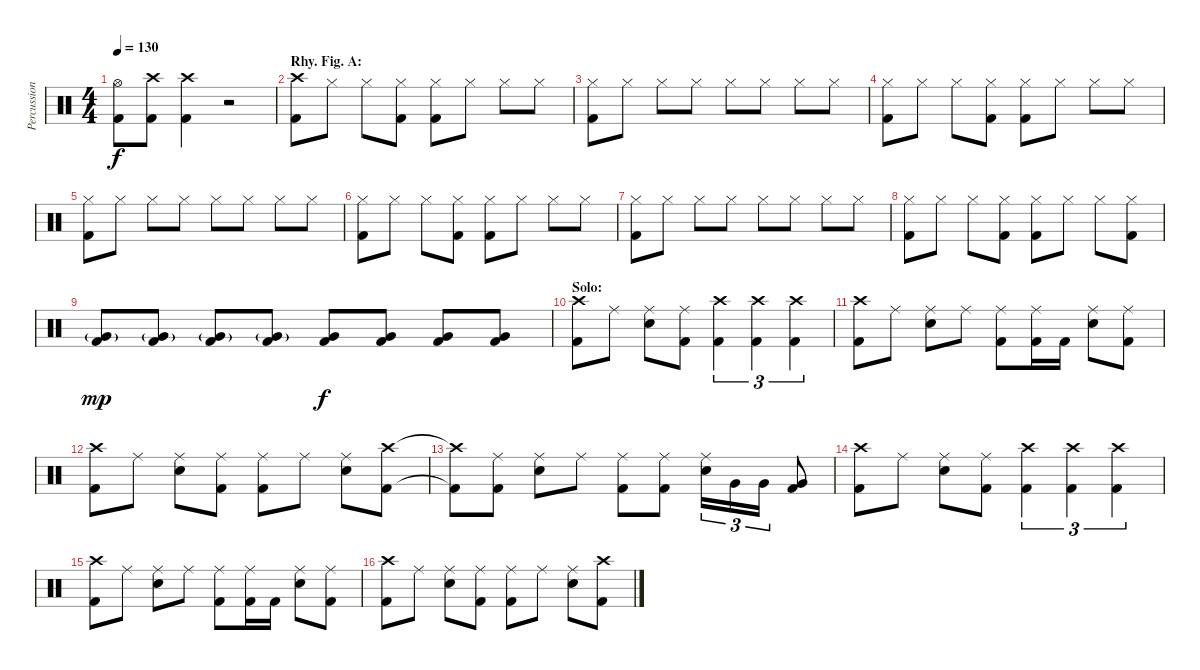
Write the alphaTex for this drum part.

\track ("Percussion" "Percussion") {instrument percussion}
\staff {score}
\articulation defaults
\ts (4 4)
\tempo 130
\clef neutral
\ks c
("Hi-Hat (open)"{t} "Kick (hit) 2"{t}).8{dy f} ("Crash high (hit)" "Kick (hit) 2").8 ("Crash high (hit)" "Kick (hit) 2").4 r.2 |
\section ("" "Rhy. Fig. A:")
("Crash high (hit)" "Kick (hit) 2").8 "Hi-Hat (closed)".8 "Hi-Hat (closed)".8 ("Hi-Hat (closed)" "Kick (hit) 2").8 ("Hi-Hat (closed)" "Kick (hit) 2").8 "Hi-Hat (closed)".8 "Hi-Hat (closed)".8 "Hi-Hat (closed)".8 |
("Hi-Hat (closed)" "Kick (hit) 2").8 "Hi-Hat (closed)".8 "Hi-Hat (closed)".8 "Hi-Hat (closed)".8 "Hi-Hat (closed)".8 "Hi-Hat (closed)".8 "Hi-Hat (closed)".8 "Hi-Hat (closed)".8 |
("Hi-Hat (closed)" "Kick (hit) 2").8 "Hi-Hat (closed)".8 "Hi-Hat (closed)".8 ("Hi-Hat (closed)" "Kick (hit) 2").8 ("Hi-Hat (closed)" "Kick (hit) 2").8 "Hi-Hat (closed)".8 "Hi-Hat (closed)".8 "Hi-Hat (closed)".8 |
("Hi-Hat (closed)" "Kick (hit) 2").8 "Hi-Hat (closed)".8 "Hi-Hat (closed)".8 "Hi-Hat (closed)".8 "Hi-Hat (closed)".8 "Hi-Hat (closed)".8 "Hi-Hat (closed)".8 "Hi-Hat (closed)".8 |
("Hi-Hat (closed)" "Kick (hit) 2").8 "Hi-Hat (closed)".8 "Hi-Hat (closed)".8 ("Hi-Hat (closed)" "Kick (hit) 2").8 ("Hi-Hat (closed)" "Kick (hit) 2").8 "Hi-Hat (closed)".8 "Hi-Hat (closed)".8 "Hi-Hat (closed)".8 |
("Hi-Hat (closed)" "Kick (hit) 2").8 "Hi-Hat (closed)".8 "Hi-Hat (closed)".8 "Hi-Hat (closed)".8 "Hi-Hat (closed)".8 "Hi-Hat (closed)".8 "Hi-Hat (closed)".8 "Hi-Hat (closed)".8 |
("Hi-Hat (closed)" "Kick (hit) 2").8 "Hi-Hat (closed)".8 "Hi-Hat (closed)".8 ("Hi-Hat (closed)" "Kick (hit) 2").8 ("Hi-Hat (closed)" "Kick (hit) 2").8 "Hi-Hat (closed)".8 "Hi-Hat (closed)".8 ("Hi-Hat (closed)" "Kick (hit) 2").8 |
("Very Low Tom (hit)"{g} "Kick (hit) 2").8{dy mp} ("Very Low Tom (hit)"{g} "Kick (hit) 2").8 ("Very Low Tom (hit)"{g} "Kick (hit) 2").8 ("Very Low Tom (hit)"{g} "Kick (hit) 2").8 ("Very Low Tom (hit)" "Kick (hit) 2").8{dy f} ("Very Low Tom (hit)" "Kick (hit) 2").8 ("Very Low Tom (hit)" "Kick (hit) 2").8 ("Very Low Tom (hit)" "Kick (hit) 2").8 |
\section ("" "Solo:")
("Crash high (hit)" "Kick (hit) 2").8 "Ride (middle)".8 ("Ride (middle)" "Electric Snare (hit)").8 ("Ride (middle)" "Kick (hit) 2").8 ("Crash high (hit)" "Kick (hit) 2").4{tu (3 2)} ("Crash high (hit)" "Kick (hit) 2").4{tu (3 2)} ("Crash high (hit)" "Kick (hit) 2").4{tu (3 2)} |
("Crash high (hit)" "Kick (hit) 2").8 "Ride (middle)".8 ("Ride (middle)" "Electric Snare (hit)").8 "Ride (middle)".8 ("Ride (middle)" "Kick (hit) 2").8 ("Ride (middle)" "Kick (hit) 2").16 "Kick (hit) 2".16 ("Ride (middle)" "Electric Snare (hit)").8 ("Ride (middle)" "Kick (hit) 2").8 |
("Crash high (hit)" "Kick (hit) 2").8 "Ride (middle)".8 ("Ride (middle)" "Electric Snare (hit)").8 ("Ride (middle)" "Kick (hit) 2").8 ("Ride (middle)" "Kick (hit) 2").8 "Ride (middle)".8 ("Ride (middle)" "Electric Snare (hit)").8 ("Crash high (hit)" "Kick (hit) 2").8 |
("Crash high (hit)"{t} "Kick (hit) 2"{t}).8 ("Ride (middle)" "Kick (hit) 2").8 ("Ride (middle)" "Electric Snare (hit)").8 "Ride (middle)".8 ("Ride (middle)" "Kick (hit) 2").8 ("Ride (middle)" "Kick (hit) 2").8 ("Ride (middle)" "Electric Snare (hit)").16{tu (3 2)} "Very Low Tom (hit)".16{tu (3 2)} "Very Low Tom (hit)".16{tu (3 2)} ("Very Low Tom (hit)" "Kick (hit) 2").8 |
("Crash high (hit)" "Kick (hit) 2").8 "Ride (middle)".8 ("Ride (middle)" "Electric Snare (hit)").8 ("Ride (middle)" "Kick (hit) 2").8 ("Crash high (hit)" "Kick (hit) 2").4{tu (3 2)} ("Crash high (hit)" "Kick (hit) 2").4{tu (3 2)} ("Crash high (hit)" "Kick (hit) 2").4{tu (3 2)} |
("Crash high (hit)" "Kick (hit) 2").8 "Ride (middle)".8 ("Ride (middle)" "Electric Snare (hit)").8 "Ride (middle)".8 ("Ride (middle)" "Kick (hit) 2").8 ("Ride (middle)" "Kick (hit) 2").16 "Kick (hit) 2".16 ("Ride (middle)" "Electric Snare (hit)").8 ("Ride (middle)" "Kick (hit) 2").8 |
("Crash high (hit)" "Kick (hit) 2").8 "Ride (middle)".8 ("Ride (middle)" "Electric Snare (hit)").8 ("Ride (middle)" "Kick (hit) 2").8 ("Ride (middle)" "Kick (hit) 2").8 "Ride (middle)".8 ("Ride (middle)" "Electric Snare (hit)").8 ("Crash high (hit)" "Kick (hit) 2").8
